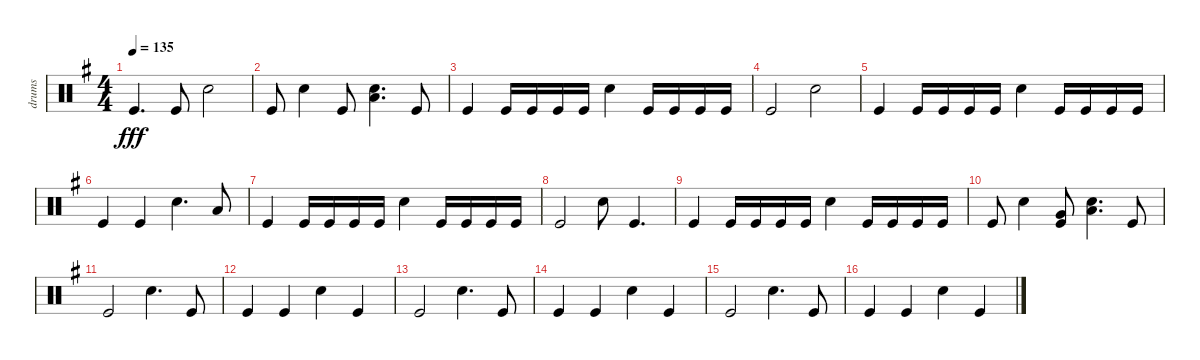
\track ("drums" "drums") {instrument percussion}
\staff {score}
\articulation defaults
\ts (4 4)
\tempo 135
\clef neutral
\ks eminor "Kick (hit)".4{d dy fff} "Kick (hit)".8 "Electric Snare (hit)".2
|
"Kick (hit)".8 "Electric Snare (hit)".4 "Kick (hit)".8 ("Low Floor Tom (hit)" "Electric Snare (hit)").4{d} "Kick (hit)".8 |
"Kick (hit)".4 "Kick (hit)".16 "Kick (hit)".16 "Kick (hit)".16 "Kick (hit)".16 "Electric Snare (hit)".4 "Kick (hit)".16 "Kick (hit)".16 "Kick (hit)".16 "Kick (hit)".16 |
"Kick (hit)".2 "Electric Snare (hit)".2 |
"Kick (hit)".4 "Kick (hit)".16 "Kick (hit)".16 "Kick (hit)".16 "Kick (hit)".16 "Electric Snare (hit)".4 "Kick (hit)".16 "Kick (hit)".16 "Kick (hit)".16 "Kick (hit)".16 |
"Kick (hit)".4 "Kick (hit)".4 "Electric Snare (hit)".4{d} "Low Floor Tom (hit)".8 |
"Kick (hit)".4 "Kick (hit)".16 "Kick (hit)".16 "Kick (hit)".16 "Kick (hit)".16 "Electric Snare (hit)".4 "Kick (hit)".16 "Kick (hit)".16 "Kick (hit)".16 "Kick (hit)".16 |
"Kick (hit)".2 "Electric Snare (hit)".8 "Kick (hit)".4{d} |
"Kick (hit)".4 "Kick (hit)".16 "Kick (hit)".16 "Kick (hit)".16 "Kick (hit)".16 "Electric Snare (hit)".4 "Kick (hit)".16 "Kick (hit)".16 "Kick (hit)".16 "Kick (hit)".16 |
"Kick (hit)".8 "Electric Snare (hit)".4 ("Very Low Tom (hit)" "Kick (hit)").8 ("Low Floor Tom (hit)" "Electric Snare (hit)").4{d} "Kick (hit)".8 |
"Kick (hit)".2 "Electric Snare (hit)".4{d} "Kick (hit)".8 |
"Kick (hit)".4 "Kick (hit)".4 "Electric Snare (hit)".4 "Kick (hit)".4 |
"Kick (hit)".2 "Electric Snare (hit)".4{d} "Kick (hit)".8 |
"Kick (hit)".4 "Kick (hit)".4 "Electric Snare (hit)".4 "Kick (hit)".4 |
"Kick (hit)".2 "Electric Snare (hit)".4{d} "Kick (hit)".8 |
"Kick (hit)".4 "Kick (hit)".4 "Electric Snare (hit)".4 "Kick (hit)".4
